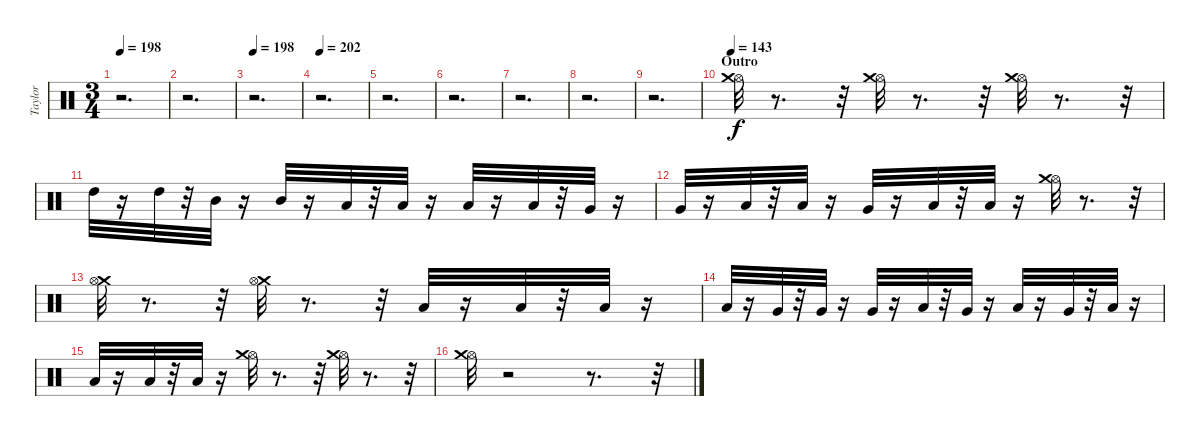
\track ("Taylor" "Taylor") {instrument percussion}
\staff {score}
\articulation defaults
\ts (3 4)
\tempo 198
\clef neutral
\ks c
r.2{d dy f} |
r.2{d} |
\tempo 198
r.2{d} |
\tempo 202
r.2{d} |
r.2{d} |
r.2{d} |
r.2{d} |
r.2{d} |
r.2{d} |
\section ("" "Outro")
\tempo 143
("Hi-Hat (open)" "Crash medium (hit)").32 r.8{d} r.32 ("Hi-Hat (open)" "Crash medium (hit)").32 r.8{d} r.32 ("Hi-Hat (open)" "Crash medium (hit)").32 r.8{d} r.32 |
"High Tom (hit)".32 r.16 "High Tom (hit)".32 r.32 "Mid Tom (hit)".32 r.16 "Mid Tom (hit)".32 r.16 "Low Tom (hit)".32 r.32 "Low Tom (hit)".32 r.16 "Low Tom (hit)".32 r.16 "Low Tom (hit)".32 r.32 "Very Low Tom (hit)".32 r.16 |
"Very Low Tom (hit)".32 r.16 "Low Floor Tom (hit)".32 r.32 "Low Floor Tom (hit)".32 r.16 "Very Low Tom (hit)".32 r.16 "Low Floor Tom (hit)".32 r.32 "Low Floor Tom (hit)".32 r.16 ("Hi-Hat (open)" "Crash medium (hit)").32 r.8{d} r.32 |
("Crash medium (hit)" "Hi-Hat (open)").32 r.8{d} r.32 ("Crash medium (hit)" "Hi-Hat (open)").32 r.8{d} r.32 "Low Tom (hit)".32 r.16 "Low Tom (hit)".32 r.32 "Low Tom (hit)".32 r.16 |
"Low Tom (hit)".32 r.16 "Very Low Tom (hit)".32 r.32 "Very Low Tom (hit)".32 r.16 "Very Low Tom (hit)".32 r.16 "Low Tom (hit)".32 r.32 "Very Low Tom (hit)".32 r.16 "Low Tom (hit)".32 r.16 "Very Low Tom (hit)".32 r.32 "Low Floor Tom (hit)".32 r.16 |
"Low Floor Tom (hit)".32 r.16 "Low Floor Tom (hit)".32 r.32 "Low Floor Tom (hit)".32 r.16 ("Hi-Hat (open)" "Crash medium (hit)").32 r.8{d} r.32 ("Hi-Hat (open)" "Crash medium (hit)").32 r.8{d} r.32 |
("Hi-Hat (open)" "Crash medium (hit)").32 r.2 r.8{d} r.32
